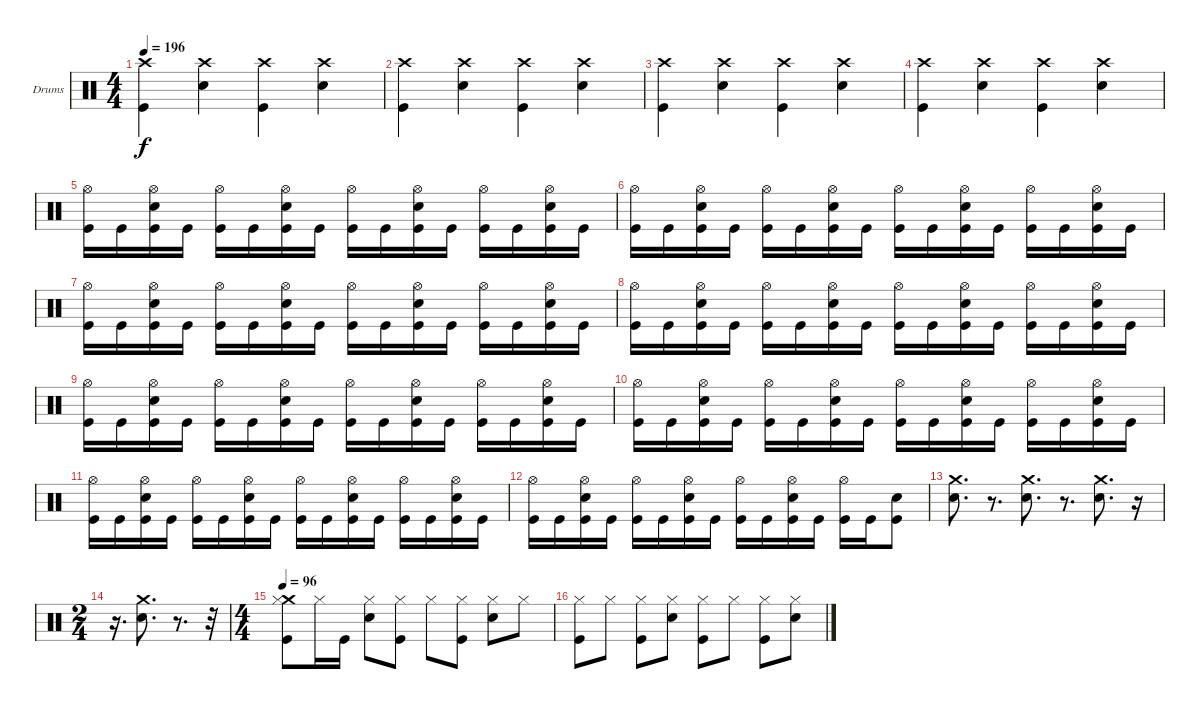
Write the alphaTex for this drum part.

\defaultSystemsLayout 4
\bracketExtendMode groupsimilarinstruments
\firstSystemTrackNameOrientation horizontal
\otherSystemsTrackNameOrientation horizontal
\track ("Lars Ulrich (Drum)" "Drums") {instrument percussion}
\staff {score}
\articulation defaults
\ts (4 4)
\tempo 196
\clef neutral
\scale
0.333333
\ks c
("Crash high (hit)" "Kick (hit)").4{dy f} ("Crash high (hit)" "Snare (hit) 2").4 ("Crash high (hit)" "Kick (hit)").4 ("Crash high (hit)" "Snare (hit) 2").4 |
\scale
0.333333 ("Crash high (hit)" "Kick (hit)").4 ("Crash high (hit)" "Snare (hit) 2").4 ("Crash high (hit)" "Kick (hit)").4 ("Crash high (hit)" "Snare (hit) 2").4 |
\scale
0.333333 ("Crash high (hit)" "Kick (hit)").4 ("Crash high (hit)" "Snare (hit) 2").4 ("Crash high (hit)" "Kick (hit)").4 ("Crash high (hit)" "Snare (hit) 2").4 |
\scale
0.333333 ("Crash high (hit)" "Kick (hit)").4 ("Crash high (hit)" "Snare (hit) 2").4 ("Crash high (hit)" "Kick (hit)").4 ("Crash high (hit)" "Snare (hit) 2").4 |
\scale
0.333333 ("Hi-Hat (open)" "Kick (hit)").16 "Kick (hit)".16 ("Hi-Hat (open)" "Snare (hit) 2" "Kick (hit)").16 "Kick (hit)".16 ("Hi-Hat (open)" "Kick (hit)").16 "Kick (hit)".16 ("Hi-Hat (open)" "Snare (hit) 2" "Kick (hit)").16 "Kick (hit)".16 ("Hi-Hat (open)" "Kick (hit)").16 "Kick (hit)".16 ("Hi-Hat (open)" "Snare (hit) 2" "Kick (hit)").16 "Kick (hit)".16 ("Hi-Hat (open)" "Kick (hit)").16 "Kick (hit)".16 ("Hi-Hat (open)" "Snare (hit) 2" "Kick (hit)").16 "Kick (hit)".16 |
\scale
0.333333 ("Hi-Hat (open)" "Kick (hit)").16 "Kick (hit)".16 ("Hi-Hat (open)" "Snare (hit) 2" "Kick (hit)").16 "Kick (hit)".16 ("Hi-Hat (open)" "Kick (hit)").16 "Kick (hit)".16 ("Hi-Hat (open)" "Snare (hit) 2" "Kick (hit)").16 "Kick (hit)".16 ("Hi-Hat (open)" "Kick (hit)").16 "Kick (hit)".16 ("Hi-Hat (open)" "Snare (hit) 2" "Kick (hit)").16 "Kick (hit)".16 ("Hi-Hat (open)" "Kick (hit)").16 "Kick (hit)".16 ("Hi-Hat (open)" "Snare (hit) 2" "Kick (hit)").16 "Kick (hit)".16 |
\scale
0.333333 ("Hi-Hat (open)" "Kick (hit)").16 "Kick (hit)".16 ("Hi-Hat (open)" "Snare (hit) 2" "Kick (hit)").16 "Kick (hit)".16 ("Hi-Hat (open)" "Kick (hit)").16 "Kick (hit)".16 ("Hi-Hat (open)" "Snare (hit) 2" "Kick (hit)").16 "Kick (hit)".16 ("Hi-Hat (open)" "Kick (hit)").16 "Kick (hit)".16 ("Hi-Hat (open)" "Snare (hit) 2" "Kick (hit)").16 "Kick (hit)".16 ("Hi-Hat (open)" "Kick (hit)").16 "Kick (hit)".16 ("Hi-Hat (open)" "Snare (hit) 2" "Kick (hit)").16 "Kick (hit)".16 |
\scale
0.333333 ("Hi-Hat (open)" "Kick (hit)").16 "Kick (hit)".16 ("Hi-Hat (open)" "Snare (hit) 2" "Kick (hit)").16 "Kick (hit)".16 ("Hi-Hat (open)" "Kick (hit)").16 "Kick (hit)".16 ("Hi-Hat (open)" "Snare (hit) 2" "Kick (hit)").16 "Kick (hit)".16 ("Hi-Hat (open)" "Kick (hit)").16 "Kick (hit)".16 ("Hi-Hat (open)" "Snare (hit) 2" "Kick (hit)").16 "Kick (hit)".16 ("Hi-Hat (open)" "Kick (hit)").16 "Kick (hit)".16 ("Hi-Hat (open)" "Snare (hit) 2" "Kick (hit)").16 "Kick (hit)".16 |
\scale
0.333333 ("Hi-Hat (open)" "Kick (hit)").16 "Kick (hit)".16 ("Hi-Hat (open)" "Snare (hit) 2" "Kick (hit)").16 "Kick (hit)".16 ("Hi-Hat (open)" "Kick (hit)").16 "Kick (hit)".16 ("Hi-Hat (open)" "Snare (hit) 2" "Kick (hit)").16 "Kick (hit)".16 ("Hi-Hat (open)" "Kick (hit)").16 "Kick (hit)".16 ("Hi-Hat (open)" "Snare (hit) 2" "Kick (hit)").16 "Kick (hit)".16 ("Hi-Hat (open)" "Kick (hit)").16 "Kick (hit)".16 ("Hi-Hat (open)" "Snare (hit) 2" "Kick (hit)").16 "Kick (hit)".16 |
\scale
0.333333 ("Hi-Hat (open)" "Kick (hit)").16 "Kick (hit)".16 ("Hi-Hat (open)" "Snare (hit) 2" "Kick (hit)").16 "Kick (hit)".16 ("Hi-Hat (open)" "Kick (hit)").16 "Kick (hit)".16 ("Hi-Hat (open)" "Snare (hit) 2" "Kick (hit)").16 "Kick (hit)".16 ("Hi-Hat (open)" "Kick (hit)").16 "Kick (hit)".16 ("Hi-Hat (open)" "Snare (hit) 2" "Kick (hit)").16 "Kick (hit)".16 ("Hi-Hat (open)" "Kick (hit)").16 "Kick (hit)".16 ("Hi-Hat (open)" "Snare (hit) 2" "Kick (hit)").16 "Kick (hit)".16 |
\scale
0.333333 ("Hi-Hat (open)" "Kick (hit)").16 "Kick (hit)".16 ("Hi-Hat (open)" "Snare (hit) 2" "Kick (hit)").16 "Kick (hit)".16 ("Hi-Hat (open)" "Kick (hit)").16 "Kick (hit)".16 ("Hi-Hat (open)" "Snare (hit) 2" "Kick (hit)").16 "Kick (hit)".16 ("Hi-Hat (open)" "Kick (hit)").16 "Kick (hit)".16 ("Hi-Hat (open)" "Snare (hit) 2" "Kick (hit)").16 "Kick (hit)".16 ("Hi-Hat (open)" "Kick (hit)").16 "Kick (hit)".16 ("Hi-Hat (open)" "Snare (hit) 2" "Kick (hit)").16 "Kick (hit)".16 |
\scale
0.333333 ("Hi-Hat (open)" "Kick (hit)").16 "Kick (hit)".16 ("Hi-Hat (open)" "Snare (hit) 2" "Kick (hit)").16 "Kick (hit)".16 ("Hi-Hat (open)" "Kick (hit)").16 "Kick (hit)".16 ("Hi-Hat (open)" "Snare (hit) 2" "Kick (hit)").16 "Kick (hit)".16 ("Hi-Hat (open)" "Kick (hit)").16 "Kick (hit)".16 ("Hi-Hat (open)" "Snare (hit) 2" "Kick (hit)").16 "Kick (hit)".16 ("Hi-Hat (open)" "Kick (hit)").16 "Kick (hit)".16 ("Snare (hit) 2" "Kick (hit)").8 |
\scale
0.333333 ("Crash medium (hit)" "Snare (hit) 2").8{d} r.8{d} ("Crash medium (hit)" "Snare (hit) 2").8{d} r.8{d} ("Crash medium (hit)" "Snare (hit) 2").8{d} r.16 |
\ts (2 4)
\scale
0.391473 r.16{d} ("Crash medium (hit)" "Snare (hit) 2").8{d} r.8{d} r.32 |
\ts (4 4)
\tempo 96
\scale
0.391473 ("Crash medium (hit)" "Hi-Hat (closed)" "Kick (hit)").8 "Hi-Hat (closed)".16 "Kick (hit)".16 ("Hi-Hat (closed)" "Snare (hit) 2").8 ("Hi-Hat (closed)" "Kick (hit)").8 "Hi-Hat (closed)".8 ("Hi-Hat (closed)" "Kick (hit)").8 ("Hi-Hat (closed)" "Snare (hit) 2").8 "Hi-Hat (closed)".8 |
\scale
0.217054 ("Hi-Hat (closed)" "Kick (hit)").8 "Hi-Hat (closed)".8 ("Hi-Hat (closed)" "Kick (hit)").8 ("Hi-Hat (closed)" "Snare (hit) 2").8 ("Hi-Hat (closed)" "Kick (hit)").8 "Hi-Hat (closed)".8 ("Hi-Hat (closed)" "Kick (hit)").8 ("Hi-Hat (closed)" "Snare (hit) 2").8
